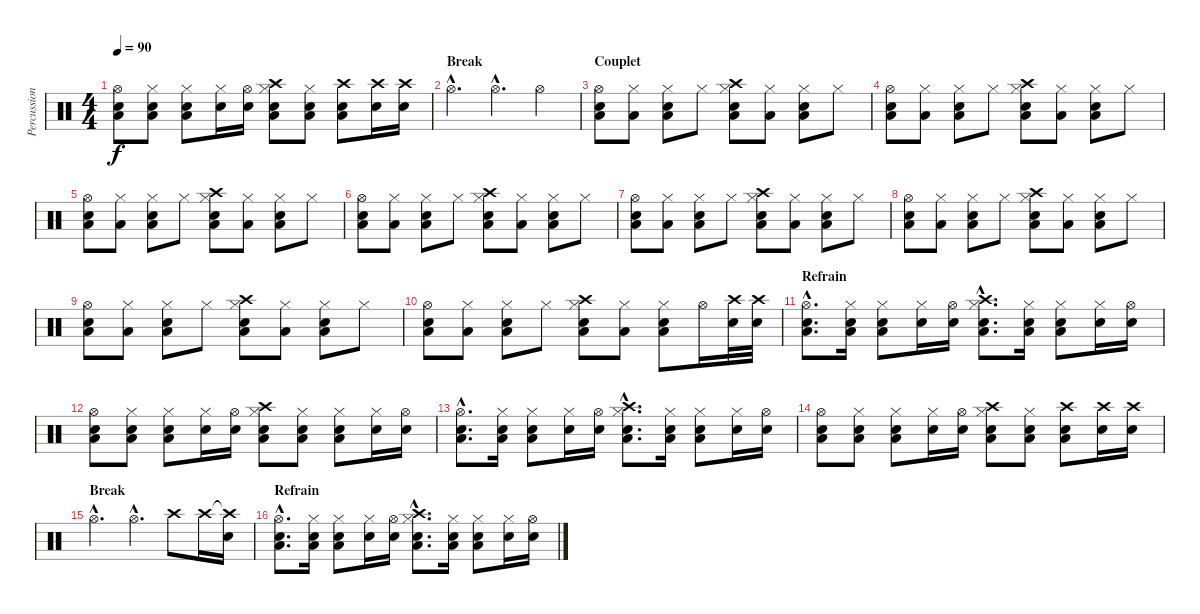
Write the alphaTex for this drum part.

\track ("Percussions" "Percussion") {instrument percussion}
\staff {score}
\articulation defaults
\ts (4 4)
\tempo 90
\clef neutral
\ks c
("Hi-Hat (open)" "Snare (hit) 2" "Low Floor Tom (hit)").8{dy f} ("Hi-Hat (closed)" "Snare (hit) 2" "Low Floor Tom (hit)").8 ("Hi-Hat (closed)" "Snare (hit) 2" "Low Floor Tom (hit)").8 ("Hi-Hat (closed)" "Snare (hit) 2").16 ("Hi-Hat (open)" "Snare (hit) 2").16 ("Hi-Hat (closed)" "Snare (hit) 2" "Low Floor Tom (hit)" "Crash high (hit)").8 ("Hi-Hat (closed)" "Snare (hit) 2" "Low Floor Tom (hit)").8 ("Crash high (hit)" "Snare (hit) 2" "Low Floor Tom (hit)").8 ("Crash high (hit)" "Snare (hit) 2").16 ("Crash high (hit)" "Snare (hit) 2").16 |
\section ("" "Break")
"Hi-Hat (open)"{hac}.4{d} "Hi-Hat (open)"{hac}.4{d} "Hi-Hat (open)".4 |
\section ("" "Couplet")
("Hi-Hat (open)" "Snare (hit) 2" "Low Floor Tom (hit)").8 ("Hi-Hat (closed)" "Low Floor Tom (hit)").8 ("Hi-Hat (closed)" "Snare (hit) 2" "Low Floor Tom (hit)").8 "Hi-Hat (closed)".8 ("Hi-Hat (closed)" "Snare (hit) 2" "Low Floor Tom (hit)" "Crash high (hit)").8 ("Hi-Hat (closed)" "Low Floor Tom (hit)").8 ("Hi-Hat (closed)" "Snare (hit) 2" "Low Floor Tom (hit)").8 "Hi-Hat (closed)".8 |
("Hi-Hat (open)" "Snare (hit) 2" "Low Floor Tom (hit)").8 ("Hi-Hat (closed)" "Low Floor Tom (hit)").8 ("Hi-Hat (closed)" "Snare (hit) 2" "Low Floor Tom (hit)").8 "Hi-Hat (closed)".8 ("Hi-Hat (closed)" "Snare (hit) 2" "Low Floor Tom (hit)" "Crash high (hit)").8 ("Hi-Hat (closed)" "Low Floor Tom (hit)").8 ("Hi-Hat (closed)" "Snare (hit) 2" "Low Floor Tom (hit)").8 "Hi-Hat (closed)".8 |
("Hi-Hat (open)" "Snare (hit) 2" "Low Floor Tom (hit)").8 ("Hi-Hat (closed)" "Low Floor Tom (hit)").8 ("Hi-Hat (closed)" "Snare (hit) 2" "Low Floor Tom (hit)").8 "Hi-Hat (closed)".8 ("Hi-Hat (closed)" "Snare (hit) 2" "Low Floor Tom (hit)" "Crash high (hit)").8 ("Hi-Hat (closed)" "Low Floor Tom (hit)").8 ("Hi-Hat (closed)" "Snare (hit) 2" "Low Floor Tom (hit)").8 "Hi-Hat (closed)".8 |
("Hi-Hat (open)" "Snare (hit) 2" "Low Floor Tom (hit)").8 ("Hi-Hat (closed)" "Low Floor Tom (hit)").8 ("Hi-Hat (closed)" "Snare (hit) 2" "Low Floor Tom (hit)").8 "Hi-Hat (closed)".8 ("Hi-Hat (closed)" "Snare (hit) 2" "Low Floor Tom (hit)" "Crash high (hit)").8 ("Hi-Hat (closed)" "Low Floor Tom (hit)").8 ("Hi-Hat (closed)" "Snare (hit) 2" "Low Floor Tom (hit)").8 "Hi-Hat (closed)".8 |
("Hi-Hat (open)" "Snare (hit) 2" "Low Floor Tom (hit)").8 ("Hi-Hat (closed)" "Low Floor Tom (hit)").8 ("Hi-Hat (closed)" "Snare (hit) 2" "Low Floor Tom (hit)").8 "Hi-Hat (closed)".8 ("Hi-Hat (closed)" "Snare (hit) 2" "Low Floor Tom (hit)" "Crash high (hit)").8 ("Hi-Hat (closed)" "Low Floor Tom (hit)").8 ("Hi-Hat (closed)" "Snare (hit) 2" "Low Floor Tom (hit)").8 "Hi-Hat (closed)".8 |
("Hi-Hat (open)" "Snare (hit) 2" "Low Floor Tom (hit)").8 ("Hi-Hat (closed)" "Low Floor Tom (hit)").8 ("Hi-Hat (closed)" "Snare (hit) 2" "Low Floor Tom (hit)").8 "Hi-Hat (closed)".8 ("Hi-Hat (closed)" "Snare (hit) 2" "Low Floor Tom (hit)" "Crash high (hit)").8 ("Hi-Hat (closed)" "Low Floor Tom (hit)").8 ("Hi-Hat (closed)" "Snare (hit) 2" "Low Floor Tom (hit)").8 "Hi-Hat (closed)".8 |
("Hi-Hat (open)" "Snare (hit) 2" "Low Floor Tom (hit)").8 ("Hi-Hat (closed)" "Low Floor Tom (hit)").8 ("Hi-Hat (closed)" "Snare (hit) 2" "Low Floor Tom (hit)").8 "Hi-Hat (closed)".8 ("Hi-Hat (closed)" "Snare (hit) 2" "Low Floor Tom (hit)" "Crash high (hit)").8 ("Hi-Hat (closed)" "Low Floor Tom (hit)").8 ("Hi-Hat (closed)" "Snare (hit) 2" "Low Floor Tom (hit)").8 "Hi-Hat (closed)".8 |
("Hi-Hat (open)" "Snare (hit) 2" "Low Floor Tom (hit)").8 ("Hi-Hat (closed)" "Low Floor Tom (hit)").8 ("Hi-Hat (closed)" "Snare (hit) 2" "Low Floor Tom (hit)").8 "Hi-Hat (closed)".8 ("Hi-Hat (closed)" "Snare (hit) 2" "Low Floor Tom (hit)" "Crash high (hit)").8 ("Hi-Hat (closed)" "Low Floor Tom (hit)").8 ("Hi-Hat (closed)" "Snare (hit) 2" "Low Floor Tom (hit)").8 "Hi-Hat (open)".16 ("Crash high (hit)" "Snare (hit) 2").32 ("Crash high (hit)" "Snare (hit) 2").32 |
\section ("" "Refrain")
("Hi-Hat (open)"{hac} "Snare (hit) 2"{hac} "Low Floor Tom (hit)"{hac}).8{d} ("Hi-Hat (closed)" "Snare (hit) 2" "Low Floor Tom (hit)").16 ("Hi-Hat (closed)" "Snare (hit) 2" "Low Floor Tom (hit)").8 ("Hi-Hat (closed)" "Snare (hit) 2").16 ("Hi-Hat (open)" "Snare (hit) 2").16 ("Hi-Hat (closed)"{hac} "Snare (hit) 2"{hac} "Low Floor Tom (hit)"{hac} "Crash high (hit)"{hac}).8{d} ("Hi-Hat (closed)" "Snare (hit) 2" "Low Floor Tom (hit)").16 ("Hi-Hat (closed)" "Snare (hit) 2" "Low Floor Tom (hit)").8 ("Hi-Hat (closed)" "Snare (hit) 2").16 ("Hi-Hat (open)" "Snare (hit) 2").16 |
("Hi-Hat (open)" "Snare (hit) 2" "Low Floor Tom (hit)").8 ("Hi-Hat (closed)" "Snare (hit) 2" "Low Floor Tom (hit)").8 ("Hi-Hat (closed)" "Snare (hit) 2" "Low Floor Tom (hit)").8 ("Hi-Hat (closed)" "Snare (hit) 2").16 ("Hi-Hat (open)" "Snare (hit) 2").16 ("Hi-Hat (closed)" "Snare (hit) 2" "Low Floor Tom (hit)" "Crash high (hit)").8 ("Hi-Hat (closed)" "Snare (hit) 2" "Low Floor Tom (hit)").8 ("Hi-Hat (closed)" "Snare (hit) 2" "Low Floor Tom (hit)").8 ("Hi-Hat (closed)" "Snare (hit) 2").16 ("Hi-Hat (open)" "Snare (hit) 2").16 |
("Hi-Hat (open)"{hac} "Snare (hit) 2"{hac} "Low Floor Tom (hit)"{hac}).8{d} ("Hi-Hat (closed)" "Snare (hit) 2" "Low Floor Tom (hit)").16 ("Hi-Hat (closed)" "Snare (hit) 2" "Low Floor Tom (hit)").8 ("Hi-Hat (closed)" "Snare (hit) 2").16 ("Hi-Hat (open)" "Snare (hit) 2").16 ("Hi-Hat (closed)"{hac} "Snare (hit) 2"{hac} "Low Floor Tom (hit)"{hac} "Crash high (hit)"{hac}).8{d} ("Hi-Hat (closed)" "Snare (hit) 2" "Low Floor Tom (hit)").16 ("Hi-Hat (closed)" "Snare (hit) 2" "Low Floor Tom (hit)").8 ("Hi-Hat (closed)" "Snare (hit) 2").16 ("Hi-Hat (open)" "Snare (hit) 2").16 |
("Hi-Hat (open)" "Snare (hit) 2" "Low Floor Tom (hit)").8 ("Hi-Hat (closed)" "Snare (hit) 2" "Low Floor Tom (hit)").8 ("Hi-Hat (closed)" "Snare (hit) 2" "Low Floor Tom (hit)").8 ("Hi-Hat (closed)" "Snare (hit) 2").16 ("Hi-Hat (open)" "Snare (hit) 2").16 ("Hi-Hat (closed)" "Snare (hit) 2" "Low Floor Tom (hit)" "Crash high (hit)").8 ("Hi-Hat (closed)" "Snare (hit) 2" "Low Floor Tom (hit)").8 ("Crash high (hit)" "Snare (hit) 2" "Low Floor Tom (hit)").8 ("Crash high (hit)" "Snare (hit) 2").16 ("Crash high (hit)" "Snare (hit) 2").16 |
\section ("" "Break")
"Hi-Hat (open)"{hac}.4{d} "Hi-Hat (open)"{hac}.4{d} "Crash high (hit)".8 "Crash high (hit)".16 ("Crash high (hit)"{t} "Snare (hit) 2").16 |
\section ("" "Refrain")
("Hi-Hat (open)"{hac} "Snare (hit) 2"{hac} "Low Floor Tom (hit)"{hac}).8{d} ("Hi-Hat (closed)" "Snare (hit) 2" "Low Floor Tom (hit)").16 ("Hi-Hat (closed)" "Snare (hit) 2" "Low Floor Tom (hit)").8 ("Hi-Hat (closed)" "Snare (hit) 2").16 ("Hi-Hat (open)" "Snare (hit) 2").16 ("Hi-Hat (closed)"{hac} "Snare (hit) 2"{hac} "Low Floor Tom (hit)"{hac} "Crash high (hit)"{hac}).8{d} ("Hi-Hat (closed)" "Snare (hit) 2" "Low Floor Tom (hit)").16 ("Hi-Hat (closed)" "Snare (hit) 2" "Low Floor Tom (hit)").8 ("Hi-Hat (closed)" "Snare (hit) 2").16 ("Hi-Hat (open)" "Snare (hit) 2").16
